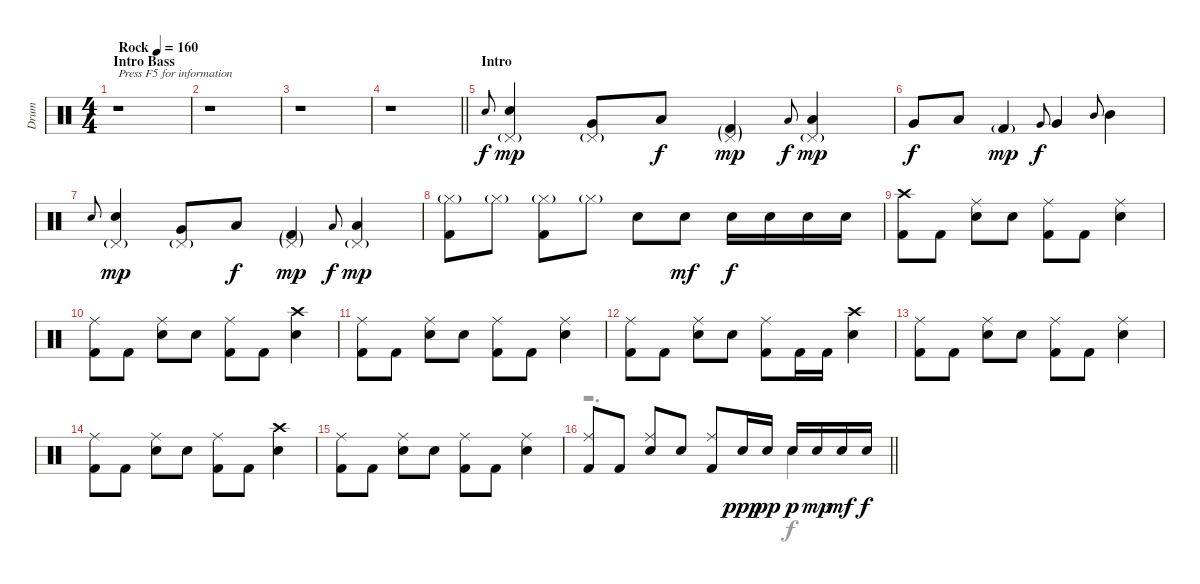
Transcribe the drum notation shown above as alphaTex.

\track ("Drum" "Drum") {instrument percussion}
\staff {score}
\articulation defaults
\voice
\ts (4 4)
\section ("" "Intro Bass")
\tempo (160 "Rock")
\clef neutral
\ks c
r.1{txt "Press F5 for information" dy f} |
r.1 |
r.1 |
\barLineRight lightlight
r.1 |
\section ("" "Intro")
"Electric Snare (hit)".8{gr onbeat} ("Electric Snare (hit)" "Pedal Hi-Hat (hit)"{g}).4{dy mp} ("Very Low Tom (hit)" "Pedal Hi-Hat (hit)"{g}).8 "Low Tom (hit)".8{dy f} ("Pedal Hi-Hat (hit)"{g} "Kick (hit) 2"{g}).4{dy mp} "Low Floor Tom (hit)".8{gr onbeat dy f} ("Low Floor Tom (hit)" "Pedal Hi-Hat (hit)"{g}).4{dy mp} |
"Very Low Tom (hit)".8{dy f} "Low Tom (hit)".8 "Kick (hit) 2"{g}.4{dy mp} "Very Low Tom (hit)".8{gr onbeat dy f} "Very Low Tom (hit)".4 "Mid Tom (hit)".8{gr onbeat} "Mid Tom (hit)".4 |
"Electric Snare (hit)".8{gr onbeat} ("Electric Snare (hit)" "Pedal Hi-Hat (hit)"{g}).4{dy mp} ("Very Low Tom (hit)" "Pedal Hi-Hat (hit)"{g}).8 "Low Tom (hit)".8{dy f} ("Pedal Hi-Hat (hit)"{g} "Kick (hit) 2"{g}).4{dy mp} "Low Floor Tom (hit)".8{gr onbeat dy f} ("Low Floor Tom (hit)" "Pedal Hi-Hat (hit)"{g}).4{dy mp} |
("Hi-Hat (closed)"{g} "Kick (hit) 2").8 "Hi-Hat (closed)"{g}.8 ("Hi-Hat (closed)"{g} "Kick (hit) 2").8 "Hi-Hat (closed)"{g}.8 "Electric Snare (hit)".8 "Electric Snare (hit)".8{dy mf} "Electric Snare (hit)".16{dy f} "Electric Snare (hit)".16 "Electric Snare (hit)".16 "Electric Snare (hit)".16 |
("Crash high (hit)" "Kick (hit) 2").8 "Kick (hit) 2".8 ("Ride (middle)" "Electric Snare (hit)").8 "Electric Snare (hit)".8 ("Ride (middle)" "Kick (hit) 2").8 "Kick (hit) 2".8 ("Ride (middle)" "Electric Snare (hit)").4 |
("Ride (middle)" "Kick (hit) 2").8 "Kick (hit) 2".8 ("Ride (middle)" "Electric Snare (hit)").8 "Electric Snare (hit)".8 ("Ride (middle)" "Kick (hit) 2").8 "Kick (hit) 2".8 ("Crash high (hit)" "Electric Snare (hit)").4 |
("Ride (middle)" "Kick (hit) 2").8 "Kick (hit) 2".8 ("Ride (middle)" "Electric Snare (hit)").8 "Electric Snare (hit)".8 ("Ride (middle)" "Kick (hit) 2").8 "Kick (hit) 2".8 ("Ride (middle)" "Electric Snare (hit)").4 |
("Ride (middle)" "Kick (hit) 2").8 "Kick (hit) 2".8 ("Ride (middle)" "Electric Snare (hit)").8 "Electric Snare (hit)".8 ("Ride (middle)" "Kick (hit) 2").8 "Kick (hit) 2".16 "Kick (hit) 2".16 ("Crash high (hit)" "Electric Snare (hit)").4 |
("Ride (middle)" "Kick (hit) 2").8 "Kick (hit) 2".8 ("Ride (middle)" "Electric Snare (hit)").8 "Electric Snare (hit)".8 ("Ride (middle)" "Kick (hit) 2").8 "Kick (hit) 2".8 ("Ride (middle)" "Electric Snare (hit)").4 |
("Ride (middle)" "Kick (hit) 2").8 "Kick (hit) 2".8 ("Ride (middle)" "Electric Snare (hit)").8 "Electric Snare (hit)".8 ("Ride (middle)" "Kick (hit) 2").8 "Kick (hit) 2".8 ("Crash high (hit)" "Electric Snare (hit)").4 |
("Ride (middle)" "Kick (hit) 2").8 "Kick (hit) 2".8 ("Ride (middle)" "Electric Snare (hit)").8 "Electric Snare (hit)".8 ("Ride (middle)" "Kick (hit) 2").8 "Kick (hit) 2".8 ("Ride (middle)" "Electric Snare (hit)").4 |
\barLineRight lightlight
("Ride (middle)" "Kick (hit) 2").8 "Kick (hit) 2".8 ("Ride (middle)" "Electric Snare (hit)").8 "Electric Snare (hit)".8 ("Ride (middle)" "Kick (hit) 2").8 "Electric Snare (hit)".16{dy ppp} "Electric Snare (hit)".16{dy pp} "Electric Snare (hit)".16{dy p} "Electric Snare (hit)".16{dy mp} "Electric Snare (hit)".16{dy mf} "Electric Snare (hit)".16{dy f}
\voice
\clef neutral
\ottava regular
\simile none
\ks c
|
|
|
\barLineRight lightlight
|
|
|
|
|
|
|
|
|
|
|
|
\barLineRight lightlight
r.2{d} "Electric Snare (hit)".4
